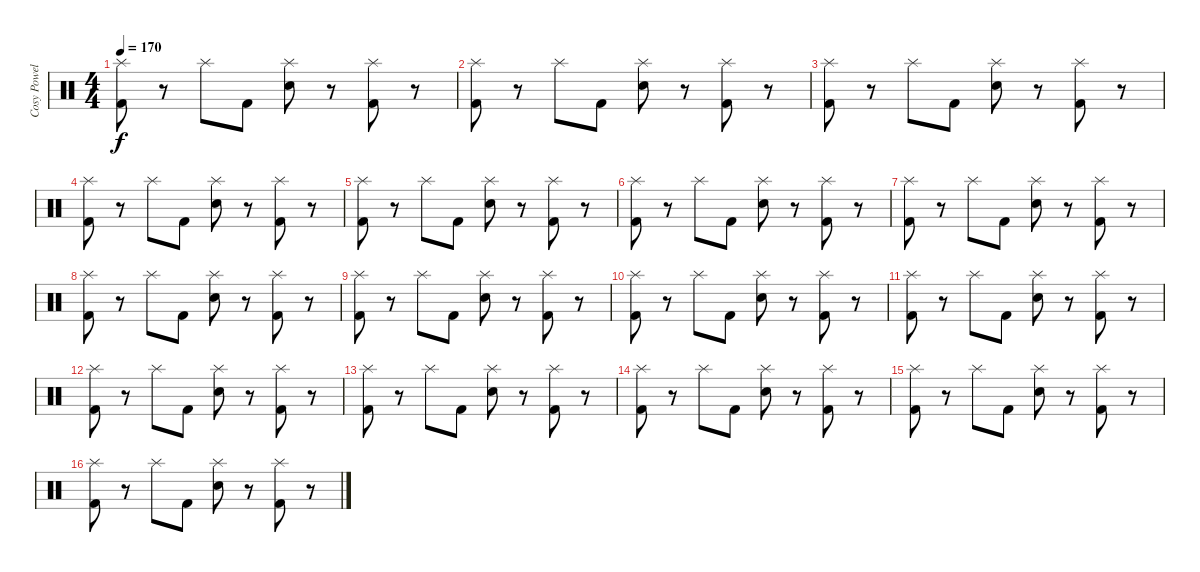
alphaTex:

\track ("Cosy Powell" "Cosy Powel") {instrument percussion}
\staff {score}
\articulation defaults
\ts (4 4)
\tempo 170
\clef neutral
\ks c
("Splash (hit)" "Kick (hit) 2").8{dy f} r.8 "Splash (hit)".8 "Kick (hit) 2".8 ("Splash (hit)" "Snare (hit) 2").8 r.8 ("Splash (hit)" "Kick (hit) 2").8 r.8 |
("Splash (hit)" "Kick (hit) 2").8 r.8 "Splash (hit)".8 "Kick (hit) 2".8 ("Splash (hit)" "Snare (hit) 2").8 r.8 ("Splash (hit)" "Kick (hit) 2").8 r.8 |
("Splash (hit)" "Kick (hit) 2").8 r.8 "Splash (hit)".8 "Kick (hit) 2".8 ("Splash (hit)" "Snare (hit) 2").8 r.8 ("Splash (hit)" "Kick (hit) 2").8 r.8 |
("Splash (hit)" "Kick (hit) 2").8 r.8 "Splash (hit)".8 "Kick (hit) 2".8 ("Splash (hit)" "Snare (hit) 2").8 r.8 ("Splash (hit)" "Kick (hit) 2").8 r.8 |
("Splash (hit)" "Kick (hit) 2").8 r.8 "Splash (hit)".8 "Kick (hit) 2".8 ("Splash (hit)" "Snare (hit) 2").8 r.8 ("Splash (hit)" "Kick (hit) 2").8 r.8 |
("Splash (hit)" "Kick (hit) 2").8 r.8 "Splash (hit)".8 "Kick (hit) 2".8 ("Splash (hit)" "Snare (hit) 2").8 r.8 ("Splash (hit)" "Kick (hit) 2").8 r.8 |
("Splash (hit)" "Kick (hit) 2").8 r.8 "Splash (hit)".8 "Kick (hit) 2".8 ("Splash (hit)" "Snare (hit) 2").8 r.8 ("Splash (hit)" "Kick (hit) 2").8 r.8 |
("Splash (hit)" "Kick (hit) 2").8 r.8 "Splash (hit)".8 "Kick (hit) 2".8 ("Splash (hit)" "Snare (hit) 2").8 r.8 ("Splash (hit)" "Kick (hit) 2").8 r.8 |
("Splash (hit)" "Kick (hit) 2").8 r.8 "Splash (hit)".8 "Kick (hit) 2".8 ("Splash (hit)" "Snare (hit) 2").8 r.8 ("Splash (hit)" "Kick (hit) 2").8 r.8 |
("Splash (hit)" "Kick (hit) 2").8 r.8 "Splash (hit)".8 "Kick (hit) 2".8 ("Splash (hit)" "Snare (hit) 2").8 r.8 ("Splash (hit)" "Kick (hit) 2").8 r.8 |
("Splash (hit)" "Kick (hit) 2").8 r.8 "Splash (hit)".8 "Kick (hit) 2".8 ("Splash (hit)" "Snare (hit) 2").8 r.8 ("Splash (hit)" "Kick (hit) 2").8 r.8 |
("Splash (hit)" "Kick (hit) 2").8 r.8 "Splash (hit)".8 "Kick (hit) 2".8 ("Splash (hit)" "Snare (hit) 2").8 r.8 ("Splash (hit)" "Kick (hit) 2").8 r.8 |
("Splash (hit)" "Kick (hit) 2").8 r.8 "Splash (hit)".8 "Kick (hit) 2".8 ("Splash (hit)" "Snare (hit) 2").8 r.8 ("Splash (hit)" "Kick (hit) 2").8 r.8 |
("Splash (hit)" "Kick (hit) 2").8 r.8 "Splash (hit)".8 "Kick (hit) 2".8 ("Splash (hit)" "Snare (hit) 2").8 r.8 ("Splash (hit)" "Kick (hit) 2").8 r.8 |
("Splash (hit)" "Kick (hit) 2").8 r.8 "Splash (hit)".8 "Kick (hit) 2".8 ("Splash (hit)" "Snare (hit) 2").8 r.8 ("Splash (hit)" "Kick (hit) 2").8 r.8 |
("Splash (hit)" "Kick (hit) 2").8 r.8 "Splash (hit)".8 "Kick (hit) 2".8 ("Splash (hit)" "Snare (hit) 2").8 r.8 ("Splash (hit)" "Kick (hit) 2").8 r.8
